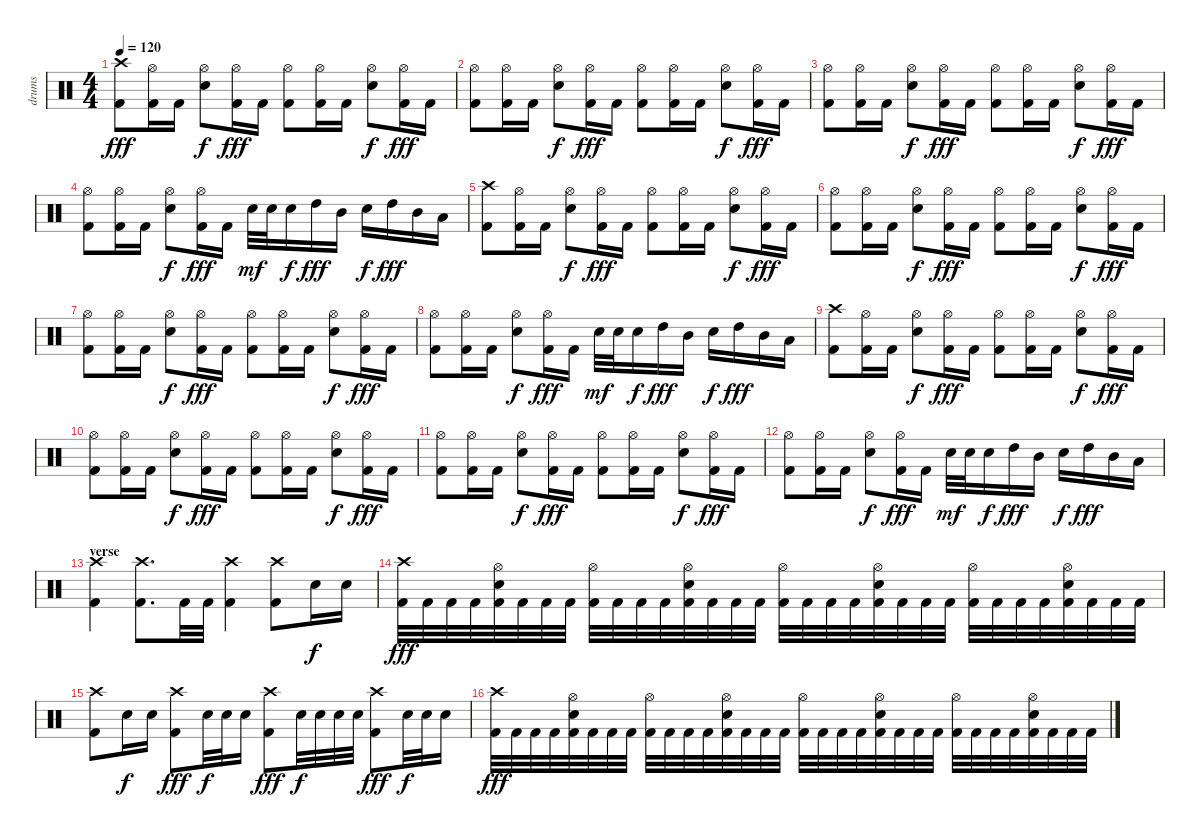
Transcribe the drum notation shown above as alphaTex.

\track ("drums" "drums") {instrument percussion}
\staff {score}
\articulation defaults
\ts (4 4)
\tempo 120
\clef neutral
\ks c
("Crash high (hit)" "Kick (hit) 2").8{dy fff} ("Hi-Hat (open)" "Kick (hit) 2").16 "Kick (hit) 2".16 ("Hi-Hat (open)" "Snare (hit) 2").8{dy f} ("Hi-Hat (open)" "Kick (hit) 2").16{dy fff} "Kick (hit) 2".16 ("Hi-Hat (open)" "Kick (hit) 2").8 ("Hi-Hat (open)" "Kick (hit) 2").16 "Kick (hit) 2".16 ("Hi-Hat (open)" "Snare (hit) 2").8{dy f} ("Hi-Hat (open)" "Kick (hit) 2").16{dy fff} "Kick (hit) 2".16 |
("Hi-Hat (open)" "Kick (hit) 2").8 ("Hi-Hat (open)" "Kick (hit) 2").16 "Kick (hit) 2".16 ("Hi-Hat (open)" "Snare (hit) 2").8{dy f} ("Hi-Hat (open)" "Kick (hit) 2").16{dy fff} "Kick (hit) 2".16 ("Hi-Hat (open)" "Kick (hit) 2").8 ("Hi-Hat (open)" "Kick (hit) 2").16 "Kick (hit) 2".16 ("Hi-Hat (open)" "Snare (hit) 2").8{dy f} ("Hi-Hat (open)" "Kick (hit) 2").16{dy fff} "Kick (hit) 2".16 |
("Hi-Hat (open)" "Kick (hit) 2").8 ("Hi-Hat (open)" "Kick (hit) 2").16 "Kick (hit) 2".16 ("Hi-Hat (open)" "Snare (hit) 2").8{dy f} ("Hi-Hat (open)" "Kick (hit) 2").16{dy fff} "Kick (hit) 2".16 ("Hi-Hat (open)" "Kick (hit) 2").8 ("Hi-Hat (open)" "Kick (hit) 2").16 "Kick (hit) 2".16 ("Hi-Hat (open)" "Snare (hit) 2").8{dy f} ("Hi-Hat (open)" "Kick (hit) 2").16{dy fff} "Kick (hit) 2".16 |
("Hi-Hat (open)" "Kick (hit) 2").8 ("Hi-Hat (open)" "Kick (hit) 2").16 "Kick (hit) 2".16 ("Hi-Hat (open)" "Snare (hit) 2").8{dy f} ("Hi-Hat (open)" "Kick (hit) 2").16{dy fff} "Kick (hit) 2".16 "Snare (hit) 2".32{dy mf} "Snare (hit) 2".32 "Snare (hit) 2".16{dy f} "High Tom (hit)".16{dy fff} "Mid Tom (hit)".16 "Snare (hit) 2".16{dy f} "High Tom (hit)".16{dy fff} "Mid Tom (hit)".16 "Low Tom (hit)".16 |
("Crash high (hit)" "Kick (hit) 2").8 ("Hi-Hat (open)" "Kick (hit) 2").16 "Kick (hit) 2".16 ("Hi-Hat (open)" "Snare (hit) 2").8{dy f} ("Hi-Hat (open)" "Kick (hit) 2").16{dy fff} "Kick (hit) 2".16 ("Hi-Hat (open)" "Kick (hit) 2").8 ("Hi-Hat (open)" "Kick (hit) 2").16 "Kick (hit) 2".16 ("Hi-Hat (open)" "Snare (hit) 2").8{dy f} ("Hi-Hat (open)" "Kick (hit) 2").16{dy fff} "Kick (hit) 2".16 |
("Hi-Hat (open)" "Kick (hit) 2").8 ("Hi-Hat (open)" "Kick (hit) 2").16 "Kick (hit) 2".16 ("Hi-Hat (open)" "Snare (hit) 2").8{dy f} ("Hi-Hat (open)" "Kick (hit) 2").16{dy fff} "Kick (hit) 2".16 ("Hi-Hat (open)" "Kick (hit) 2").8 ("Hi-Hat (open)" "Kick (hit) 2").16 "Kick (hit) 2".16 ("Hi-Hat (open)" "Snare (hit) 2").8{dy f} ("Hi-Hat (open)" "Kick (hit) 2").16{dy fff} "Kick (hit) 2".16 |
("Hi-Hat (open)" "Kick (hit) 2").8 ("Hi-Hat (open)" "Kick (hit) 2").16 "Kick (hit) 2".16 ("Hi-Hat (open)" "Snare (hit) 2").8{dy f} ("Hi-Hat (open)" "Kick (hit) 2").16{dy fff} "Kick (hit) 2".16 ("Hi-Hat (open)" "Kick (hit) 2").8 ("Hi-Hat (open)" "Kick (hit) 2").16 "Kick (hit) 2".16 ("Hi-Hat (open)" "Snare (hit) 2").8{dy f} ("Hi-Hat (open)" "Kick (hit) 2").16{dy fff} "Kick (hit) 2".16 |
("Hi-Hat (open)" "Kick (hit) 2").8 ("Hi-Hat (open)" "Kick (hit) 2").16 "Kick (hit) 2".16 ("Hi-Hat (open)" "Snare (hit) 2").8{dy f} ("Hi-Hat (open)" "Kick (hit) 2").16{dy fff} "Kick (hit) 2".16 "Snare (hit) 2".32{dy mf} "Snare (hit) 2".32 "Snare (hit) 2".16{dy f} "High Tom (hit)".16{dy fff} "Mid Tom (hit)".16 "Snare (hit) 2".16{dy f} "High Tom (hit)".16{dy fff} "Mid Tom (hit)".16 "Low Tom (hit)".16 |
("Crash high (hit)" "Kick (hit) 2").8 ("Hi-Hat (open)" "Kick (hit) 2").16 "Kick (hit) 2".16 ("Hi-Hat (open)" "Snare (hit) 2").8{dy f} ("Hi-Hat (open)" "Kick (hit) 2").16{dy fff} "Kick (hit) 2".16 ("Hi-Hat (open)" "Kick (hit) 2").8 ("Hi-Hat (open)" "Kick (hit) 2").16 "Kick (hit) 2".16 ("Hi-Hat (open)" "Snare (hit) 2").8{dy f} ("Hi-Hat (open)" "Kick (hit) 2").16{dy fff} "Kick (hit) 2".16 |
("Hi-Hat (open)" "Kick (hit) 2").8 ("Hi-Hat (open)" "Kick (hit) 2").16 "Kick (hit) 2".16 ("Hi-Hat (open)" "Snare (hit) 2").8{dy f} ("Hi-Hat (open)" "Kick (hit) 2").16{dy fff} "Kick (hit) 2".16 ("Hi-Hat (open)" "Kick (hit) 2").8 ("Hi-Hat (open)" "Kick (hit) 2").16 "Kick (hit) 2".16 ("Hi-Hat (open)" "Snare (hit) 2").8{dy f} ("Hi-Hat (open)" "Kick (hit) 2").16{dy fff} "Kick (hit) 2".16 |
("Hi-Hat (open)" "Kick (hit) 2").8 ("Hi-Hat (open)" "Kick (hit) 2").16 "Kick (hit) 2".16 ("Hi-Hat (open)" "Snare (hit) 2").8{dy f} ("Hi-Hat (open)" "Kick (hit) 2").16{dy fff} "Kick (hit) 2".16 ("Hi-Hat (open)" "Kick (hit) 2").8 ("Hi-Hat (open)" "Kick (hit) 2").16 "Kick (hit) 2".16 ("Hi-Hat (open)" "Snare (hit) 2").8{dy f} ("Hi-Hat (open)" "Kick (hit) 2").16{dy fff} "Kick (hit) 2".16 |
("Hi-Hat (open)" "Kick (hit) 2").8 ("Hi-Hat (open)" "Kick (hit) 2").16 "Kick (hit) 2".16 ("Hi-Hat (open)" "Snare (hit) 2").8{dy f} ("Hi-Hat (open)" "Kick (hit) 2").16{dy fff} "Kick (hit) 2".16 "Snare (hit) 2".32{dy mf} "Snare (hit) 2".32 "Snare (hit) 2".16{dy f} "High Tom (hit)".16{dy fff} "Mid Tom (hit)".16 "Snare (hit) 2".16{dy f} "High Tom (hit)".16{dy fff} "Mid Tom (hit)".16 "Low Tom (hit)".16 |
\section ("" "verse")
("Crash high (hit)" "Kick (hit) 2").4 ("Crash high (hit)" "Kick (hit) 2").8{d} "Kick (hit) 2".32 "Kick (hit) 2".32 ("Crash high (hit)" "Kick (hit) 2").4 ("Crash high (hit)" "Kick (hit) 2").8 "Snare (hit) 2".16{dy f} "Snare (hit) 2".16 |
("Crash high (hit)" "Kick (hit) 2").32{dy fff} "Kick (hit) 2".32 "Kick (hit) 2".32 "Kick (hit) 2".32 ("Hi-Hat (open)" "Snare (hit) 2" "Kick (hit) 2").32 "Kick (hit) 2".32 "Kick (hit) 2".32 "Kick (hit) 2".32 ("Hi-Hat (open)" "Kick (hit) 2").32 "Kick (hit) 2".32 "Kick (hit) 2".32 "Kick (hit) 2".32 ("Hi-Hat (open)" "Snare (hit) 2" "Kick (hit) 2").32 "Kick (hit) 2".32 "Kick (hit) 2".32 "Kick (hit) 2".32 ("Hi-Hat (open)" "Kick (hit) 2").32 "Kick (hit) 2".32 "Kick (hit) 2".32 "Kick (hit) 2".32 ("Hi-Hat (open)" "Snare (hit) 2" "Kick (hit) 2").32 "Kick (hit) 2".32 "Kick (hit) 2".32 "Kick (hit) 2".32 ("Hi-Hat (open)" "Kick (hit) 2").32 "Kick (hit) 2".32 "Kick (hit) 2".32 "Kick (hit) 2".32 ("Hi-Hat (open)" "Snare (hit) 2" "Kick (hit) 2").32 "Kick (hit) 2".32 "Kick (hit) 2".32 "Kick (hit) 2".32 |
("Crash high (hit)" "Kick (hit) 2").8 "Snare (hit) 2".16{dy f} "Snare (hit) 2".16 ("Crash high (hit)" "Kick (hit) 2").8{dy fff} "Snare (hit) 2".32{dy f} "Snare (hit) 2".32 "Snare (hit) 2".16 ("Crash high (hit)" "Kick (hit) 2").8{dy fff} "Snare (hit) 2".32{dy f} "Snare (hit) 2".32 "Snare (hit) 2".32 "Snare (hit) 2".32 ("Crash high (hit)" "Kick (hit) 2").8{dy fff} "Snare (hit) 2".32{dy f} "Snare (hit) 2".32 "Snare (hit) 2".16 |
("Crash high (hit)" "Kick (hit) 2").32{dy fff} "Kick (hit) 2".32 "Kick (hit) 2".32 "Kick (hit) 2".32 ("Hi-Hat (open)" "Snare (hit) 2" "Kick (hit) 2").32 "Kick (hit) 2".32 "Kick (hit) 2".32 "Kick (hit) 2".32 ("Hi-Hat (open)" "Kick (hit) 2").32 "Kick (hit) 2".32 "Kick (hit) 2".32 "Kick (hit) 2".32 ("Hi-Hat (open)" "Snare (hit) 2" "Kick (hit) 2").32 "Kick (hit) 2".32 "Kick (hit) 2".32 "Kick (hit) 2".32 ("Hi-Hat (open)" "Kick (hit) 2").32 "Kick (hit) 2".32 "Kick (hit) 2".32 "Kick (hit) 2".32 ("Hi-Hat (open)" "Snare (hit) 2" "Kick (hit) 2").32 "Kick (hit) 2".32 "Kick (hit) 2".32 "Kick (hit) 2".32 ("Hi-Hat (open)" "Kick (hit) 2").32 "Kick (hit) 2".32 "Kick (hit) 2".32 "Kick (hit) 2".32 ("Hi-Hat (open)" "Snare (hit) 2" "Kick (hit) 2").32 "Kick (hit) 2".32 "Kick (hit) 2".32 "Kick (hit) 2".32
